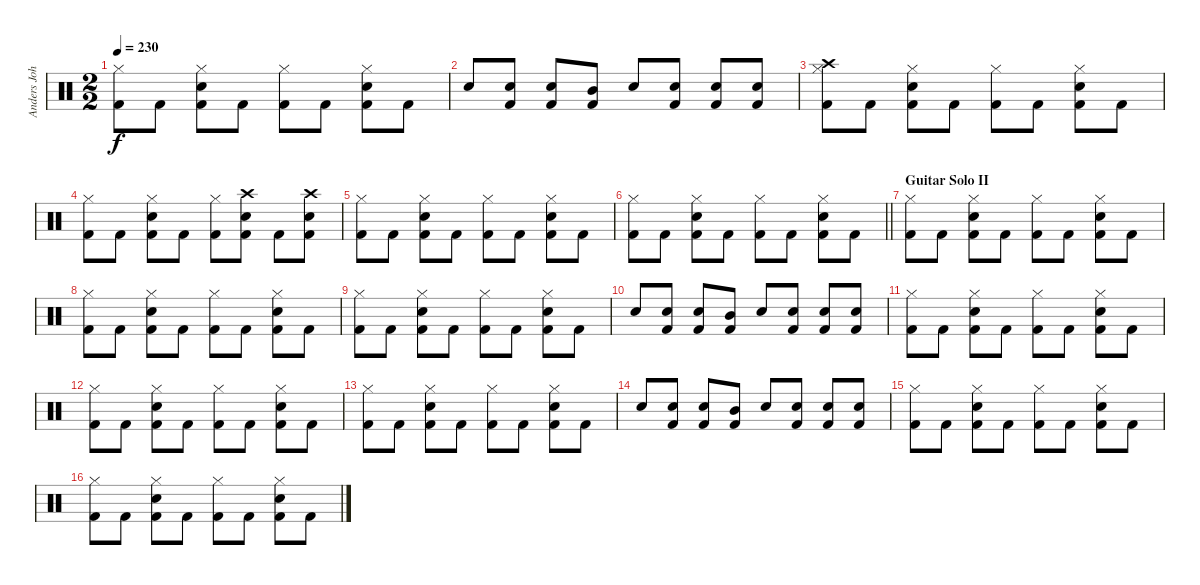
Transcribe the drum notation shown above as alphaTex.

\track ("Anders Johansson" "Anders Joh") {instrument percussion}
\staff {score}
\articulation defaults
\ts (2 2)
\tempo 230
\clef neutral
\ks c
("Hi-Hat (closed)" "Kick (hit) 2").8{dy f} "Kick (hit) 2".8 ("Electric Snare (hit)" "Hi-Hat (closed)" "Kick (hit) 2").8 "Kick (hit) 2".8 ("Hi-Hat (closed)" "Kick (hit) 2").8 "Kick (hit) 2".8 ("Electric Snare (hit)" "Hi-Hat (closed)" "Kick (hit) 2").8 "Kick (hit) 2".8 |
"Electric Snare (hit)".8 ("Electric Snare (hit)" "Kick (hit) 2").8 ("Electric Snare (hit)" "Kick (hit) 2").8 ("Mid Tom (hit)" "Kick (hit) 2").8 "Electric Snare (hit)".8 ("Electric Snare (hit)" "Kick (hit) 2").8 ("Electric Snare (hit)" "Kick (hit) 2").8 ("Electric Snare (hit)" "Kick (hit) 2").8 |
("Crash high (hit)" "Hi-Hat (closed)" "Kick (hit) 2").8 "Kick (hit) 2".8 ("Electric Snare (hit)" "Hi-Hat (closed)" "Kick (hit) 2").8 "Kick (hit) 2".8 ("Hi-Hat (closed)" "Kick (hit) 2").8 "Kick (hit) 2".8 ("Electric Snare (hit)" "Hi-Hat (closed)" "Kick (hit) 2").8 "Kick (hit) 2".8 |
("Hi-Hat (closed)" "Kick (hit) 2").8 "Kick (hit) 2".8 ("Electric Snare (hit)" "Hi-Hat (closed)" "Kick (hit) 2").8 "Kick (hit) 2".8 ("Hi-Hat (closed)" "Kick (hit) 2").8 ("Crash high (hit)" "Electric Snare (hit)" "Kick (hit) 2").8 "Kick (hit) 2".8 ("Crash high (hit)" "Electric Snare (hit)" "Kick (hit) 2").8 |
("Hi-Hat (closed)" "Kick (hit) 2").8 "Kick (hit) 2".8 ("Electric Snare (hit)" "Hi-Hat (closed)" "Kick (hit) 2").8 "Kick (hit) 2".8 ("Hi-Hat (closed)" "Kick (hit) 2").8 "Kick (hit) 2".8 ("Electric Snare (hit)" "Hi-Hat (closed)" "Kick (hit) 2").8 "Kick (hit) 2".8 |
\barLineRight lightlight
("Hi-Hat (closed)" "Kick (hit) 2").8 "Kick (hit) 2".8 ("Electric Snare (hit)" "Hi-Hat (closed)" "Kick (hit) 2").8 "Kick (hit) 2".8 ("Hi-Hat (closed)" "Kick (hit) 2").8 "Kick (hit) 2".8 ("Electric Snare (hit)" "Hi-Hat (closed)" "Kick (hit) 2").8 "Kick (hit) 2".8 |
\section ("" "Guitar Solo II")
("Hi-Hat (closed)" "Kick (hit) 2").8 "Kick (hit) 2".8 ("Electric Snare (hit)" "Hi-Hat (closed)" "Kick (hit) 2").8 "Kick (hit) 2".8 ("Hi-Hat (closed)" "Kick (hit) 2").8 "Kick (hit) 2".8 ("Electric Snare (hit)" "Hi-Hat (closed)" "Kick (hit) 2").8 "Kick (hit) 2".8 |
("Hi-Hat (closed)" "Kick (hit) 2").8 "Kick (hit) 2".8 ("Electric Snare (hit)" "Hi-Hat (closed)" "Kick (hit) 2").8 "Kick (hit) 2".8 ("Hi-Hat (closed)" "Kick (hit) 2").8 "Kick (hit) 2".8 ("Electric Snare (hit)" "Hi-Hat (closed)" "Kick (hit) 2").8 "Kick (hit) 2".8 |
("Hi-Hat (closed)" "Kick (hit) 2").8 "Kick (hit) 2".8 ("Electric Snare (hit)" "Hi-Hat (closed)" "Kick (hit) 2").8 "Kick (hit) 2".8 ("Hi-Hat (closed)" "Kick (hit) 2").8 "Kick (hit) 2".8 ("Electric Snare (hit)" "Hi-Hat (closed)" "Kick (hit) 2").8 "Kick (hit) 2".8 |
"Electric Snare (hit)".8 ("Electric Snare (hit)" "Kick (hit) 2").8 ("Electric Snare (hit)" "Kick (hit) 2").8 ("Mid Tom (hit)" "Kick (hit) 2").8 "Electric Snare (hit)".8 ("Electric Snare (hit)" "Kick (hit) 2").8 ("Electric Snare (hit)" "Kick (hit) 2").8 ("Electric Snare (hit)" "Kick (hit) 2").8 |
("Hi-Hat (closed)" "Kick (hit) 2").8 "Kick (hit) 2".8 ("Electric Snare (hit)" "Hi-Hat (closed)" "Kick (hit) 2").8 "Kick (hit) 2".8 ("Hi-Hat (closed)" "Kick (hit) 2").8 "Kick (hit) 2".8 ("Electric Snare (hit)" "Hi-Hat (closed)" "Kick (hit) 2").8 "Kick (hit) 2".8 |
("Hi-Hat (closed)" "Kick (hit) 2").8 "Kick (hit) 2".8 ("Electric Snare (hit)" "Hi-Hat (closed)" "Kick (hit) 2").8 "Kick (hit) 2".8 ("Hi-Hat (closed)" "Kick (hit) 2").8 "Kick (hit) 2".8 ("Electric Snare (hit)" "Hi-Hat (closed)" "Kick (hit) 2").8 "Kick (hit) 2".8 |
("Hi-Hat (closed)" "Kick (hit) 2").8 "Kick (hit) 2".8 ("Electric Snare (hit)" "Hi-Hat (closed)" "Kick (hit) 2").8 "Kick (hit) 2".8 ("Hi-Hat (closed)" "Kick (hit) 2").8 "Kick (hit) 2".8 ("Electric Snare (hit)" "Hi-Hat (closed)" "Kick (hit) 2").8 "Kick (hit) 2".8 |
"Electric Snare (hit)".8 ("Electric Snare (hit)" "Kick (hit) 2").8 ("Electric Snare (hit)" "Kick (hit) 2").8 ("Mid Tom (hit)" "Kick (hit) 2").8 "Electric Snare (hit)".8 ("Electric Snare (hit)" "Kick (hit) 2").8 ("Electric Snare (hit)" "Kick (hit) 2").8 ("Electric Snare (hit)" "Kick (hit) 2").8 |
("Hi-Hat (closed)" "Kick (hit) 2").8 "Kick (hit) 2".8 ("Electric Snare (hit)" "Hi-Hat (closed)" "Kick (hit) 2").8 "Kick (hit) 2".8 ("Hi-Hat (closed)" "Kick (hit) 2").8 "Kick (hit) 2".8 ("Electric Snare (hit)" "Hi-Hat (closed)" "Kick (hit) 2").8 "Kick (hit) 2".8 |
("Hi-Hat (closed)" "Kick (hit) 2").8 "Kick (hit) 2".8 ("Electric Snare (hit)" "Hi-Hat (closed)" "Kick (hit) 2").8 "Kick (hit) 2".8 ("Hi-Hat (closed)" "Kick (hit) 2").8 "Kick (hit) 2".8 ("Electric Snare (hit)" "Hi-Hat (closed)" "Kick (hit) 2").8 "Kick (hit) 2".8
